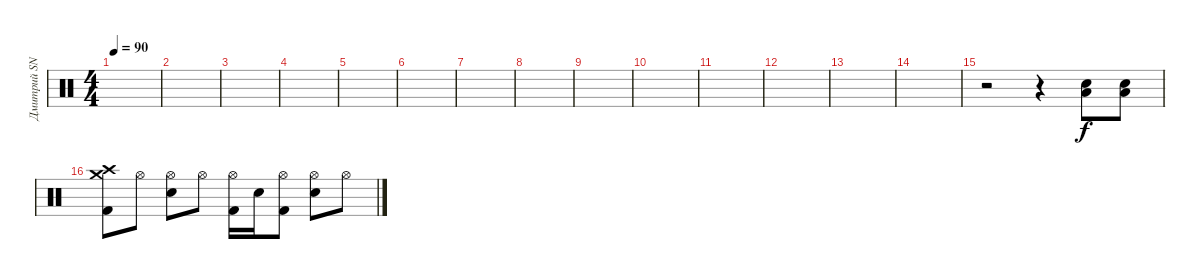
\track ("Дмитрий SNAKE Хакимов" "Дмитрий SN") {instrument percussion}
\staff {score}
\articulation defaults
\ts (4 4)
\tempo 90
\clef neutral
\ks c
|
|
|
|
|
|
|
|
|
|
|
|
|
|
r.2 r.4 ("Snare (hit) 2" "Low Tom (hit)").8 ("Snare (hit) 2" "Low Tom (hit)").8 |
("Crash high (hit)" "Crash medium (hit)" "Kick (hit) 2").8 "Hi-Hat (open)".8 ("Hi-Hat (open)" "Snare (hit) 2").8 "Hi-Hat (open)".8 ("Hi-Hat (open)" "Kick (hit) 2").16 "Snare (hit) 2".16 ("Hi-Hat (open)" "Kick (hit) 2").8 ("Hi-Hat (open)" "Snare (hit) 2").8 "Hi-Hat (open)".8
